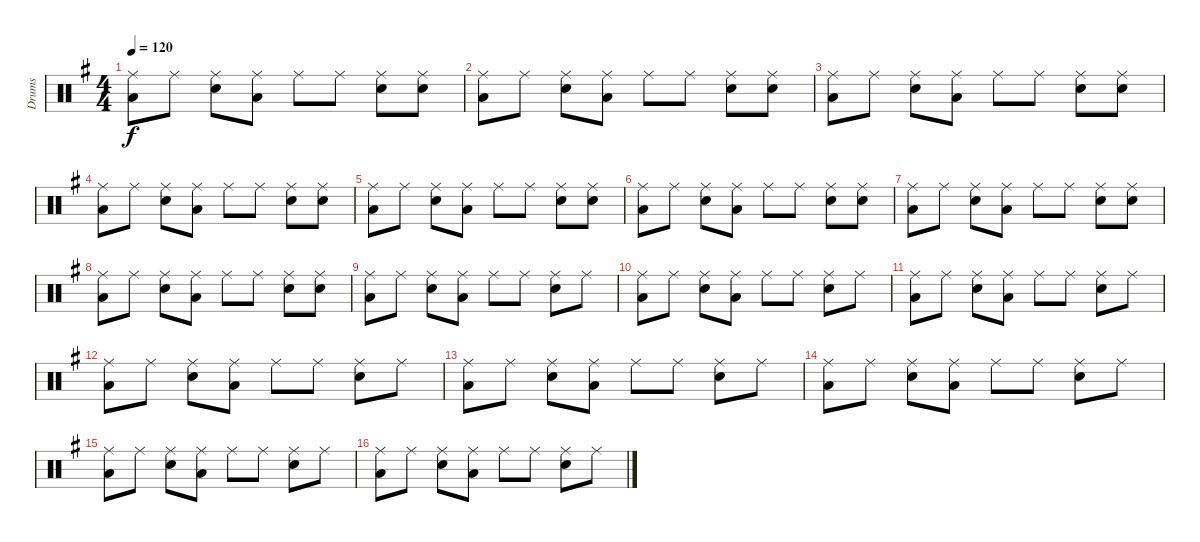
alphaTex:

\track ("Drums" "Drums") {instrument percussion}
\staff {score}
\articulation defaults
\ts (4 4)
\tempo 120
\clef neutral
\ks g
("Ride (middle)" "Low Floor Tom (hit)").8{dy f} "Ride (middle)".8 ("Ride (middle)" "Snare (hit) 2").8 ("Ride (middle)" "Low Floor Tom (hit)").8 "Ride (middle)".8 "Ride (middle)".8 ("Ride (middle)" "Snare (hit) 2").8 ("Ride (middle)" "Snare (hit) 2").8 |
("Ride (middle)" "Low Floor Tom (hit)").8 "Ride (middle)".8 ("Ride (middle)" "Snare (hit) 2").8 ("Ride (middle)" "Low Floor Tom (hit)").8 "Ride (middle)".8 "Ride (middle)".8 ("Ride (middle)" "Snare (hit) 2").8 ("Ride (middle)" "Snare (hit) 2").8 |
("Ride (middle)" "Low Floor Tom (hit)").8 "Ride (middle)".8 ("Ride (middle)" "Snare (hit) 2").8 ("Ride (middle)" "Low Floor Tom (hit)").8 "Ride (middle)".8 "Ride (middle)".8 ("Ride (middle)" "Snare (hit) 2").8 ("Ride (middle)" "Snare (hit) 2").8 |
("Ride (middle)" "Low Floor Tom (hit)").8 "Ride (middle)".8 ("Ride (middle)" "Snare (hit) 2").8 ("Ride (middle)" "Low Floor Tom (hit)").8 "Ride (middle)".8 "Ride (middle)".8 ("Ride (middle)" "Snare (hit) 2").8 ("Ride (middle)" "Snare (hit) 2").8 |
("Ride (middle)" "Low Floor Tom (hit)").8 "Ride (middle)".8 ("Ride (middle)" "Snare (hit) 2").8 ("Ride (middle)" "Low Floor Tom (hit)").8 "Ride (middle)".8 "Ride (middle)".8 ("Ride (middle)" "Snare (hit) 2").8 ("Ride (middle)" "Snare (hit) 2").8 |
("Ride (middle)" "Low Floor Tom (hit)").8 "Ride (middle)".8 ("Ride (middle)" "Snare (hit) 2").8 ("Ride (middle)" "Low Floor Tom (hit)").8 "Ride (middle)".8 "Ride (middle)".8 ("Ride (middle)" "Snare (hit) 2").8 ("Ride (middle)" "Snare (hit) 2").8 |
("Ride (middle)" "Low Floor Tom (hit)").8 "Ride (middle)".8 ("Ride (middle)" "Snare (hit) 2").8 ("Ride (middle)" "Low Floor Tom (hit)").8 "Ride (middle)".8 "Ride (middle)".8 ("Ride (middle)" "Snare (hit) 2").8 ("Ride (middle)" "Snare (hit) 2").8 |
("Ride (middle)" "Low Floor Tom (hit)").8 "Ride (middle)".8 ("Ride (middle)" "Snare (hit) 2").8 ("Ride (middle)" "Low Floor Tom (hit)").8 "Ride (middle)".8 "Ride (middle)".8 ("Ride (middle)" "Snare (hit) 2").8 ("Ride (middle)" "Snare (hit) 2").8 |
("Ride (middle)" "Low Floor Tom (hit)").8 "Ride (middle)".8 ("Ride (middle)" "Snare (hit) 2").8 ("Ride (middle)" "Low Floor Tom (hit)").8 "Ride (middle)".8 "Ride (middle)".8 ("Ride (middle)" "Snare (hit) 2").8 "Ride (middle)".8 |
("Ride (middle)" "Low Floor Tom (hit)").8 "Ride (middle)".8 ("Ride (middle)" "Snare (hit) 2").8 ("Ride (middle)" "Low Floor Tom (hit)").8 "Ride (middle)".8 "Ride (middle)".8 ("Ride (middle)" "Snare (hit) 2").8 "Ride (middle)".8 |
("Ride (middle)" "Low Floor Tom (hit)").8 "Ride (middle)".8 ("Ride (middle)" "Snare (hit) 2").8 ("Ride (middle)" "Low Floor Tom (hit)").8 "Ride (middle)".8 "Ride (middle)".8 ("Ride (middle)" "Snare (hit) 2").8 "Ride (middle)".8 |
("Ride (middle)" "Low Floor Tom (hit)").8 "Ride (middle)".8 ("Ride (middle)" "Snare (hit) 2").8 ("Ride (middle)" "Low Floor Tom (hit)").8 "Ride (middle)".8 "Ride (middle)".8 ("Ride (middle)" "Snare (hit) 2").8 "Ride (middle)".8 |
("Ride (middle)" "Low Floor Tom (hit)").8 "Ride (middle)".8 ("Ride (middle)" "Snare (hit) 2").8 ("Ride (middle)" "Low Floor Tom (hit)").8 "Ride (middle)".8 "Ride (middle)".8 ("Ride (middle)" "Snare (hit) 2").8 "Ride (middle)".8 |
("Ride (middle)" "Low Floor Tom (hit)").8 "Ride (middle)".8 ("Ride (middle)" "Snare (hit) 2").8 ("Ride (middle)" "Low Floor Tom (hit)").8 "Ride (middle)".8 "Ride (middle)".8 ("Ride (middle)" "Snare (hit) 2").8 "Ride (middle)".8 |
("Ride (middle)" "Low Floor Tom (hit)").8 "Ride (middle)".8 ("Ride (middle)" "Snare (hit) 2").8 ("Ride (middle)" "Low Floor Tom (hit)").8 "Ride (middle)".8 "Ride (middle)".8 ("Ride (middle)" "Snare (hit) 2").8 "Ride (middle)".8 |
("Ride (middle)" "Low Floor Tom (hit)").8 "Ride (middle)".8 ("Ride (middle)" "Snare (hit) 2").8 ("Ride (middle)" "Low Floor Tom (hit)").8 "Ride (middle)".8 "Ride (middle)".8 ("Ride (middle)" "Snare (hit) 2").8 "Ride (middle)".8
